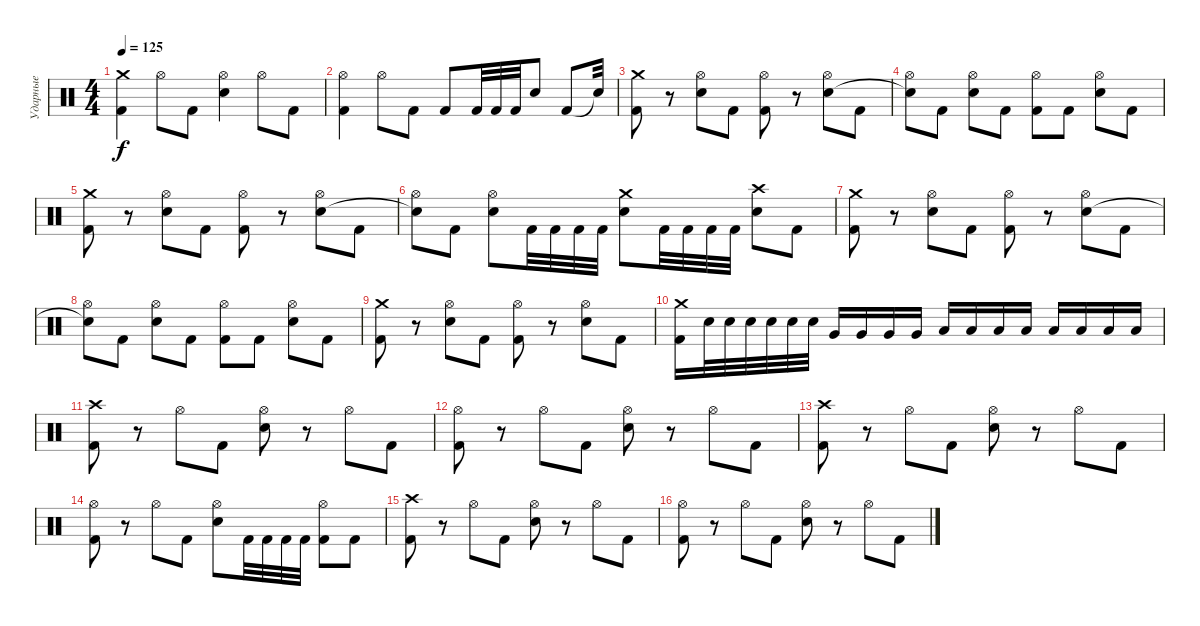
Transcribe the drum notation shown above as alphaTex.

\track ("Ударные" "Ударные") {instrument percussion}
\staff {score}
\articulation defaults
\ts (4 4)
\tempo 125
\clef neutral
\ks c
("Crash medium (hit)" "Kick (hit) 2").4{dy f} "Hi-Hat (open)".8 "Kick (hit) 2".8 ("Hi-Hat (open)" "Electric Snare (hit)").4 "Hi-Hat (open)".8 "Kick (hit) 2".8 |
("Hi-Hat (open)" "Kick (hit) 2").4 "Hi-Hat (open)".8 "Kick (hit) 2".8 "Kick (hit) 2".8 "Kick (hit) 2".32 "Kick (hit) 2".32 "Kick (hit) 2".32 "Electric Snare (hit)".8 "Kick (hit) 2".8 "Snare (hit)"{t}.32 |
("Crash medium (hit)" "Kick (hit) 2").8 r.8 ("Hi-Hat (open)" "Electric Snare (hit)").8 "Kick (hit) 2".8 ("Hi-Hat (open)" "Kick (hit) 2").8 r.8 ("Hi-Hat (open)" "Electric Snare (hit)").8 "Kick (hit) 2".8 |
("Hi-Hat (open)" "Snare (hit)"{t}).8 "Kick (hit) 2".8 ("Hi-Hat (open)" "Electric Snare (hit)").8 "Kick (hit) 2".8 ("Hi-Hat (open)" "Kick (hit) 2").8 "Kick (hit) 2".8 ("Hi-Hat (open)" "Electric Snare (hit)").8 "Kick (hit) 2".8 |
("Crash medium (hit)" "Kick (hit) 2").8 r.8 ("Hi-Hat (open)" "Electric Snare (hit)").8 "Kick (hit) 2".8 ("Hi-Hat (open)" "Kick (hit) 2").8 r.8 ("Hi-Hat (open)" "Electric Snare (hit)").8 "Kick (hit) 2".8 |
("Hi-Hat (open)" "Snare (hit)"{t}).8 "Kick (hit) 2".8 ("Hi-Hat (open)" "Electric Snare (hit)").8 "Kick (hit) 2".32 "Kick (hit) 2".32 "Kick (hit) 2".32 "Kick (hit) 2".32 ("Crash medium (hit)" "Electric Snare (hit)").8 "Kick (hit) 2".32 "Kick (hit) 2".32 "Kick (hit) 2".32 "Kick (hit) 2".32 ("Crash high (hit)" "Electric Snare (hit)").8 "Kick (hit) 2".8 |
("Crash medium (hit)" "Kick (hit) 2").8 r.8 ("Hi-Hat (open)" "Electric Snare (hit)").8 "Kick (hit) 2".8 ("Hi-Hat (open)" "Kick (hit) 2").8 r.8 ("Hi-Hat (open)" "Electric Snare (hit)").8 "Kick (hit) 2".8 |
("Hi-Hat (open)" "Snare (hit)"{t}).8 "Kick (hit) 2".8 ("Hi-Hat (open)" "Electric Snare (hit)").8 "Kick (hit) 2".8 ("Hi-Hat (open)" "Kick (hit) 2").8 "Kick (hit) 2".8 ("Hi-Hat (open)" "Electric Snare (hit)").8 "Kick (hit) 2".8 |
("Crash medium (hit)" "Kick (hit) 2").8 r.8 ("Hi-Hat (open)" "Electric Snare (hit)").8 "Kick (hit) 2".8 ("Hi-Hat (open)" "Kick (hit) 2").8 r.8 ("Hi-Hat (open)" "Electric Snare (hit)").8 "Kick (hit) 2".8 |
("Crash medium (hit)" "Kick (hit) 2").16 "Electric Snare (hit)".32 "Electric Snare (hit)".32 "Electric Snare (hit)".32 "Electric Snare (hit)".32 "Electric Snare (hit)".32 "Electric Snare (hit)".32 "Very Low Tom (hit)".16 "Very Low Tom (hit)".16 "Very Low Tom (hit)".16 "Very Low Tom (hit)".16 "Low Floor Tom (hit)".16 "Low Floor Tom (hit)".16 "Low Floor Tom (hit)".16 "Low Floor Tom (hit)".16 "Low Floor Tom (hit)".16 "Low Floor Tom (hit)".16 "Low Floor Tom (hit)".16 "Low Floor Tom (hit)".16 |
("Crash high (hit)" "Kick (hit) 2").8 r.8 "Hi-Hat (open)".8 "Kick (hit) 2".8 ("Hi-Hat (open)" "Electric Snare (hit)").8 r.8 "Hi-Hat (open)".8 "Kick (hit) 2".8 |
("Hi-Hat (open)" "Kick (hit) 2").8 r.8 "Hi-Hat (open)".8 "Kick (hit) 2".8 ("Hi-Hat (open)" "Electric Snare (hit)").8 r.8 "Hi-Hat (open)".8 "Kick (hit) 2".8 |
("Crash high (hit)" "Kick (hit) 2").8 r.8 "Hi-Hat (open)".8 "Kick (hit) 2".8 ("Hi-Hat (open)" "Electric Snare (hit)").8 r.8 "Hi-Hat (open)".8 "Kick (hit) 2".8 |
("Hi-Hat (open)" "Kick (hit) 2").8 r.8 "Hi-Hat (open)".8 "Kick (hit) 2".8 ("Hi-Hat (open)" "Electric Snare (hit)").8 "Kick (hit) 2".32 "Kick (hit) 2".32 "Kick (hit) 2".32 "Kick (hit) 2".32 ("Hi-Hat (open)" "Kick (hit) 2").8 "Kick (hit) 2".8 |
("Crash high (hit)" "Kick (hit) 2").8 r.8 "Hi-Hat (open)".8 "Kick (hit) 2".8 ("Hi-Hat (open)" "Electric Snare (hit)").8 r.8 "Hi-Hat (open)".8 "Kick (hit) 2".8 |
("Hi-Hat (open)" "Kick (hit) 2").8 r.8 "Hi-Hat (open)".8 "Kick (hit) 2".8 ("Hi-Hat (open)" "Electric Snare (hit)").8 r.8 "Hi-Hat (open)".8 "Kick (hit) 2".8
